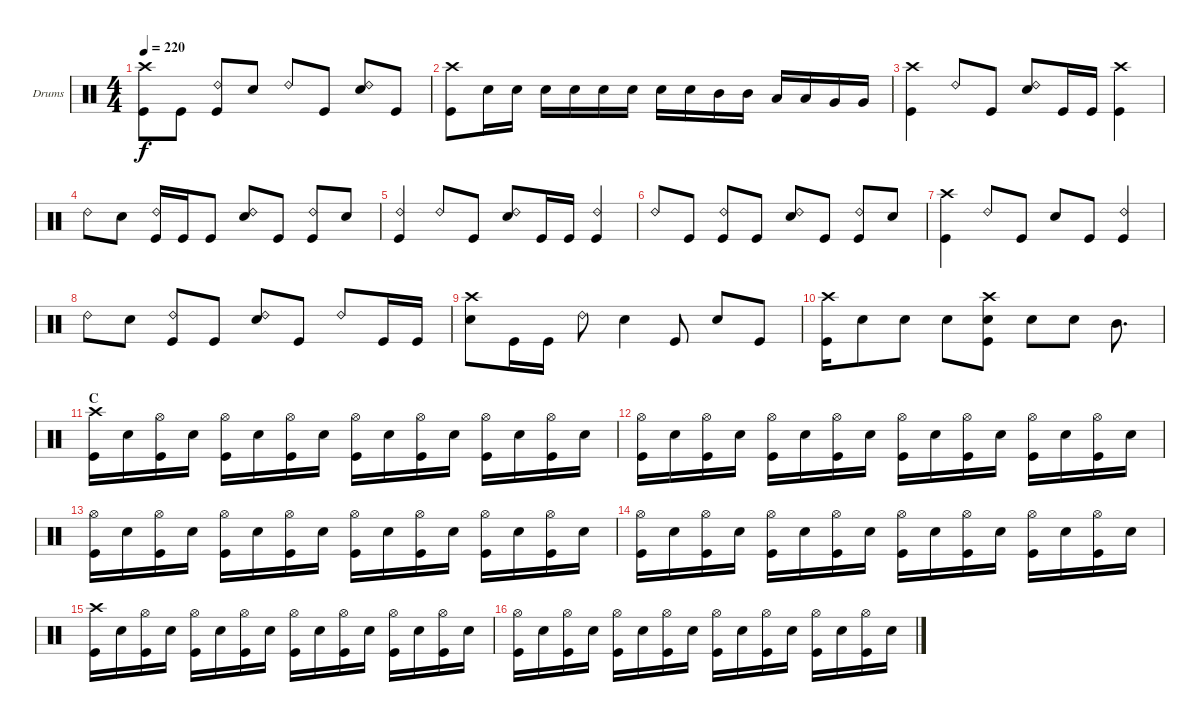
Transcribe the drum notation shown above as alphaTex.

\bracketExtendMode groupsimilarinstruments
\firstSystemTrackNameOrientation horizontal
\otherSystemsTrackNameOrientation horizontal
\track ("Drumkit" "Drums") {instrument percussion}
\staff {score}
\articulation defaults
\ts (4 4)
\tempo 220
\clef neutral
\scale
0.419948
\ks c
("Crash high (hit)" "Kick (hit)").8{dy f} "Kick (hit)".8 ("Ride (bell) 2" "Kick (hit)").8 "Snare (hit) 2".8 "Ride (bell) 2".8 "Kick (hit)".8 ("Ride (bell) 2" "Snare (hit) 2").8 "Kick (hit)".8 |
\scale
0.580052 ("Crash high (hit)" "Kick (hit)").8 "Snare (hit) 2".16 "Snare (hit) 2".16 "Snare (hit) 2".16 "Snare (hit) 2".16 "Snare (hit) 2".16 "Snare (hit) 2".16 "Snare (hit) 2".16 "Snare (hit) 2".16 "Mid Tom (hit)".16 "Mid Tom (hit)".16 "Low Tom (hit)".16 "Low Tom (hit)".16 "Very Low Tom (hit)".16 "Very Low Tom (hit)".16 |
\scale
0.471429 ("Crash high (hit)" "Kick (hit)").4 "Ride (bell) 2".8 "Kick (hit)".8 ("Ride (bell) 2" "Snare (hit) 2").8 "Kick (hit)".16 "Kick (hit)".16 ("Crash high (hit)" "Kick (hit)").4 |
\scale
0.528571 "Ride (bell) 2".8 "Snare (hit) 2".8 ("Ride (bell) 2" "Kick (hit)").16 "Kick (hit)".16 "Kick (hit)".8 ("Ride (bell) 2" "Snare (hit) 2").8 "Kick (hit)".8 ("Ride (bell) 2" "Kick (hit)").8 "Snare (hit) 2".8 |
\scale
0.507692 ("Ride (bell) 2" "Kick (hit)").4 "Ride (bell) 2".8 "Kick (hit)".8 ("Ride (bell) 2" "Snare (hit) 2").8 "Kick (hit)".16 "Kick (hit)".16 ("Ride (bell) 2" "Kick (hit)").4 |
\scale
0.492308 "Ride (bell) 2".8 "Kick (hit)".8 ("Ride (bell) 2" "Kick (hit)").8 "Kick (hit)".8 ("Ride (bell) 2" "Snare (hit) 2").8 "Kick (hit)".8 ("Ride (bell) 2" "Kick (hit)").8 "Snare (hit) 2".8 |
\scale
0.430769 ("Crash high (hit)" "Kick (hit)").4 "Ride (bell) 2".8 "Kick (hit)".8 "Snare (hit) 2".8 "Kick (hit)".8 ("Ride (bell) 2" "Kick (hit)").4 |
\scale
0.569231 "Ride (bell) 2".8 "Snare (hit) 2".8 ("Ride (bell) 2" "Kick (hit)").8 "Kick (hit)".8 ("Ride (bell) 2" "Snare (hit) 2").8 "Kick (hit)".8 "Ride (bell) 2".8 "Kick (hit)".16 "Kick (hit)".16 |
\scale
0.498575 ("Crash high (hit)" "Snare (hit) 2").8 "Kick (hit)".16 "Kick (hit)".16 "Ride (bell) 2".8 "Snare (hit) 2".4 "Kick (hit)".8 "Snare (hit) 2".8 "Kick (hit)".8 |
\scale
0.501425 ("Crash high (hit)" "Kick (hit)").16 "Snare (hit) 2".8 "Snare (hit) 2".8 "Snare (hit) 2".8 ("Crash high (hit)" "Snare (hit) 2" "Kick (hit)").8 "Snare (hit) 2".8 "Snare (hit) 2".8 "Mid Tom (hit)".8{d} |
\section ("" "C")
\scale
0.5 ("Kick (hit)" "Crash high (hit)").16 "Snare (hit) 2".16 ("Kick (hit)" "Hi-Hat (open)").16 "Snare (hit) 2".16 ("Kick (hit)" "Hi-Hat (open)").16 "Snare (hit) 2".16 ("Kick (hit)" "Hi-Hat (open)").16 "Snare (hit) 2".16 ("Kick (hit)" "Hi-Hat (open)").16 "Snare (hit) 2".16 ("Kick (hit)" "Hi-Hat (open)").16 "Snare (hit) 2".16 ("Kick (hit)" "Hi-Hat (open)").16 "Snare (hit) 2".16 ("Kick (hit)" "Hi-Hat (open)").16 "Snare (hit) 2".16 |
\scale
0.5 ("Kick (hit)" "Hi-Hat (open)").16 "Snare (hit) 2".16 ("Kick (hit)" "Hi-Hat (open)").16 "Snare (hit) 2".16 ("Kick (hit)" "Hi-Hat (open)").16 "Snare (hit) 2".16 ("Kick (hit)" "Hi-Hat (open)").16 "Snare (hit) 2".16 ("Kick (hit)" "Hi-Hat (open)").16 "Snare (hit) 2".16 ("Kick (hit)" "Hi-Hat (open)").16 "Snare (hit) 2".16 ("Kick (hit)" "Hi-Hat (open)").16 "Snare (hit) 2".16 ("Kick (hit)" "Hi-Hat (open)").16 "Snare (hit) 2".16 |
\scale
0.5 ("Kick (hit)" "Hi-Hat (open)").16 "Snare (hit) 2".16 ("Kick (hit)" "Hi-Hat (open)").16 "Snare (hit) 2".16 ("Kick (hit)" "Hi-Hat (open)").16 "Snare (hit) 2".16 ("Kick (hit)" "Hi-Hat (open)").16 "Snare (hit) 2".16 ("Kick (hit)" "Hi-Hat (open)").16 "Snare (hit) 2".16 ("Kick (hit)" "Hi-Hat (open)").16 "Snare (hit) 2".16 ("Kick (hit)" "Hi-Hat (open)").16 "Snare (hit) 2".16 ("Kick (hit)" "Hi-Hat (open)").16 "Snare (hit) 2".16 |
\scale
0.5 ("Kick (hit)" "Hi-Hat (open)").16 "Snare (hit) 2".16 ("Kick (hit)" "Hi-Hat (open)").16 "Snare (hit) 2".16 ("Kick (hit)" "Hi-Hat (open)").16 "Snare (hit) 2".16 ("Kick (hit)" "Hi-Hat (open)").16 "Snare (hit) 2".16 ("Kick (hit)" "Hi-Hat (open)").16 "Snare (hit) 2".16 ("Kick (hit)" "Hi-Hat (open)").16 "Snare (hit) 2".16 ("Kick (hit)" "Hi-Hat (open)").16 "Snare (hit) 2".16 ("Kick (hit)" "Hi-Hat (open)").16 "Snare (hit) 2".16 |
\scale
0.5 ("Kick (hit)" "Crash high (hit)").16 "Snare (hit) 2".16 ("Kick (hit)" "Hi-Hat (open)").16 "Snare (hit) 2".16 ("Kick (hit)" "Hi-Hat (open)").16 "Snare (hit) 2".16 ("Kick (hit)" "Hi-Hat (open)").16 "Snare (hit) 2".16 ("Kick (hit)" "Hi-Hat (open)").16 "Snare (hit) 2".16 ("Kick (hit)" "Hi-Hat (open)").16 "Snare (hit) 2".16 ("Kick (hit)" "Hi-Hat (open)").16 "Snare (hit) 2".16 ("Kick (hit)" "Hi-Hat (open)").16 "Snare (hit) 2".16 |
\scale
0.5 ("Kick (hit)" "Hi-Hat (open)").16 "Snare (hit) 2".16 ("Kick (hit)" "Hi-Hat (open)").16 "Snare (hit) 2".16 ("Kick (hit)" "Hi-Hat (open)").16 "Snare (hit) 2".16 ("Kick (hit)" "Hi-Hat (open)").16 "Snare (hit) 2".16 ("Kick (hit)" "Hi-Hat (open)").16 "Snare (hit) 2".16 ("Kick (hit)" "Hi-Hat (open)").16 "Snare (hit) 2".16 ("Kick (hit)" "Hi-Hat (open)").16 "Snare (hit) 2".16 ("Kick (hit)" "Hi-Hat (open)").16 "Snare (hit) 2".16
